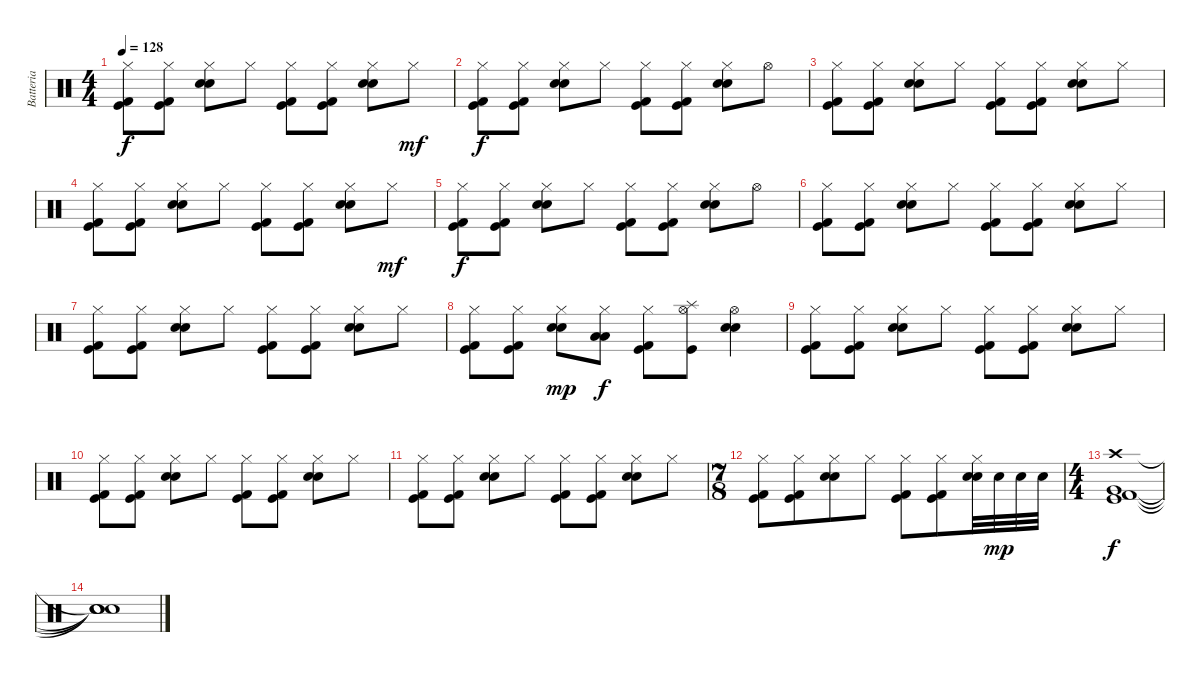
\track ("Batteria" "Batteria") {instrument percussion}
\staff {score}
\articulation defaults
\ts (4 4)
\tempo 128
\clef neutral
\ks c
("Hi-Hat (closed)" "Kick (hit) 2" "Kick (hit)").8{dy f} ("Hi-Hat (closed)" "Kick (hit) 2" "Kick (hit)").8 ("Hi-Hat (closed)" "Electric Snare (hit)" "Electric Snare (hit)").8 "Hi-Hat (closed)".8 ("Hi-Hat (closed)" "Kick (hit) 2" "Kick (hit)").8 ("Hi-Hat (closed)" "Kick (hit) 2" "Kick (hit)").8 ("Hi-Hat (closed)" "Electric Snare (hit)" "Electric Snare (hit)").8 "Hi-Hat (closed)".8{dy mf} |
("Hi-Hat (closed)" "Kick (hit) 2" "Kick (hit)").8{dy f} ("Hi-Hat (closed)" "Kick (hit) 2" "Kick (hit)").8 ("Hi-Hat (closed)" "Electric Snare (hit)" "Electric Snare (hit)").8 "Hi-Hat (closed)".8 ("Hi-Hat (closed)" "Kick (hit) 2" "Kick (hit)").8 ("Hi-Hat (closed)" "Kick (hit) 2" "Kick (hit)").8 ("Hi-Hat (closed)" "Electric Snare (hit)" "Electric Snare (hit)").8 "Hi-Hat (open)".8 |
("Hi-Hat (closed)" "Kick (hit) 2" "Kick (hit)").8 ("Hi-Hat (closed)" "Kick (hit) 2" "Kick (hit)").8 ("Hi-Hat (closed)" "Electric Snare (hit)" "Electric Snare (hit)").8 "Hi-Hat (closed)".8 ("Hi-Hat (closed)" "Kick (hit) 2" "Kick (hit)").8 ("Hi-Hat (closed)" "Kick (hit) 2" "Kick (hit)").8 ("Hi-Hat (closed)" "Electric Snare (hit)" "Electric Snare (hit)").8 "Hi-Hat (closed)".8 |
("Hi-Hat (closed)" "Kick (hit) 2" "Kick (hit)").8 ("Hi-Hat (closed)" "Kick (hit) 2" "Kick (hit)").8 ("Hi-Hat (closed)" "Electric Snare (hit)" "Electric Snare (hit)").8 "Hi-Hat (closed)".8 ("Hi-Hat (closed)" "Kick (hit) 2" "Kick (hit)").8 ("Hi-Hat (closed)" "Kick (hit) 2" "Kick (hit)").8 ("Hi-Hat (closed)" "Electric Snare (hit)" "Electric Snare (hit)").8 "Hi-Hat (closed)".8{dy mf} |
("Hi-Hat (closed)" "Kick (hit) 2" "Kick (hit)").8{dy f} ("Hi-Hat (closed)" "Kick (hit) 2" "Kick (hit)").8 ("Hi-Hat (closed)" "Electric Snare (hit)" "Electric Snare (hit)").8 "Hi-Hat (closed)".8 ("Hi-Hat (closed)" "Kick (hit) 2" "Kick (hit)").8 ("Hi-Hat (closed)" "Kick (hit) 2" "Kick (hit)").8 ("Hi-Hat (closed)" "Electric Snare (hit)" "Electric Snare (hit)").8 "Hi-Hat (open)".8 |
("Hi-Hat (closed)" "Kick (hit) 2" "Kick (hit)").8 ("Hi-Hat (closed)" "Kick (hit) 2" "Kick (hit)").8 ("Hi-Hat (closed)" "Electric Snare (hit)" "Electric Snare (hit)").8 "Hi-Hat (closed)".8 ("Hi-Hat (closed)" "Kick (hit) 2" "Kick (hit)").8 ("Hi-Hat (closed)" "Kick (hit) 2" "Kick (hit)").8 ("Hi-Hat (closed)" "Electric Snare (hit)" "Electric Snare (hit)").8 "Hi-Hat (closed)".8 |
("Hi-Hat (closed)" "Kick (hit) 2" "Kick (hit)").8 ("Hi-Hat (closed)" "Kick (hit) 2" "Kick (hit)").8 ("Hi-Hat (closed)" "Electric Snare (hit)" "Electric Snare (hit)").8 "Hi-Hat (closed)".8 ("Hi-Hat (closed)" "Kick (hit) 2" "Kick (hit)").8 ("Hi-Hat (closed)" "Kick (hit) 2" "Kick (hit)").8 ("Hi-Hat (closed)" "Electric Snare (hit)" "Electric Snare (hit)").8 "Hi-Hat (closed)".8 |
("Hi-Hat (closed)" "Kick (hit) 2" "Kick (hit)").8 ("Hi-Hat (closed)" "Kick (hit) 2" "Kick (hit)").8 ("Hi-Hat (closed)" "Electric Snare (hit)" "Electric Snare (hit)").8{dy mp} ("Hi-Hat (closed)" "Low Tom (hit)" "Low Tom (hit)").8{dy f} ("Hi-Hat (closed)" "Kick (hit) 2" "Kick (hit)").8 ("Splash (hit)" "Hi-Hat (open)" "Kick (hit)").8 ("Hi-Hat (open)" "Electric Snare (hit)" "Electric Snare (hit)").4 |
("Hi-Hat (closed)" "Kick (hit) 2" "Kick (hit)").8 ("Hi-Hat (closed)" "Kick (hit) 2" "Kick (hit)").8 ("Hi-Hat (closed)" "Electric Snare (hit)" "Electric Snare (hit)").8 "Hi-Hat (closed)".8 ("Hi-Hat (closed)" "Kick (hit) 2" "Kick (hit)").8 ("Hi-Hat (closed)" "Kick (hit) 2" "Kick (hit)").8 ("Hi-Hat (closed)" "Electric Snare (hit)" "Electric Snare (hit)").8 "Hi-Hat (closed)".8 |
("Hi-Hat (closed)" "Kick (hit) 2" "Kick (hit)").8 ("Hi-Hat (closed)" "Kick (hit) 2" "Kick (hit)").8 ("Hi-Hat (closed)" "Electric Snare (hit)" "Electric Snare (hit)").8 "Hi-Hat (closed)".8 ("Hi-Hat (closed)" "Kick (hit) 2" "Kick (hit)").8 ("Hi-Hat (closed)" "Kick (hit) 2" "Kick (hit)").8 ("Hi-Hat (closed)" "Electric Snare (hit)" "Electric Snare (hit)").8 "Hi-Hat (closed)".8 |
("Hi-Hat (closed)" "Kick (hit) 2" "Kick (hit)").8 ("Hi-Hat (closed)" "Kick (hit) 2" "Kick (hit)").8 ("Hi-Hat (closed)" "Electric Snare (hit)" "Electric Snare (hit)").8 "Hi-Hat (closed)".8 ("Hi-Hat (closed)" "Kick (hit) 2" "Kick (hit)").8 ("Hi-Hat (closed)" "Kick (hit) 2" "Kick (hit)").8 ("Hi-Hat (closed)" "Electric Snare (hit)" "Electric Snare (hit)").8 "Hi-Hat (closed)".8 |
\ts (7 8)
("Hi-Hat (closed)" "Kick (hit) 2" "Kick (hit)").8 ("Hi-Hat (closed)" "Kick (hit) 2" "Kick (hit)").8 ("Hi-Hat (closed)" "Electric Snare (hit)" "Electric Snare (hit)").8 "Hi-Hat (closed)".8 ("Hi-Hat (closed)" "Kick (hit) 2" "Kick (hit)").8 ("Hi-Hat (closed)" "Kick (hit) 2" "Kick (hit)").8 ("Hi-Hat (closed)" "Electric Snare (hit)" "Electric Snare (hit)").32 "Electric Snare (hit)".32{dy mp} "Electric Snare (hit)".32 "Electric Snare (hit)".32 |
\ts (4 4)
("Crash high (hit)" "Very Low Tom (hit)" "Kick (hit) 2" "Kick (hit)").1{dy f} |
("Snare (hit)"{t} "Snare (hit)"{t} "Snare (hit)"{t} "Snare (hit)"{t}).1
